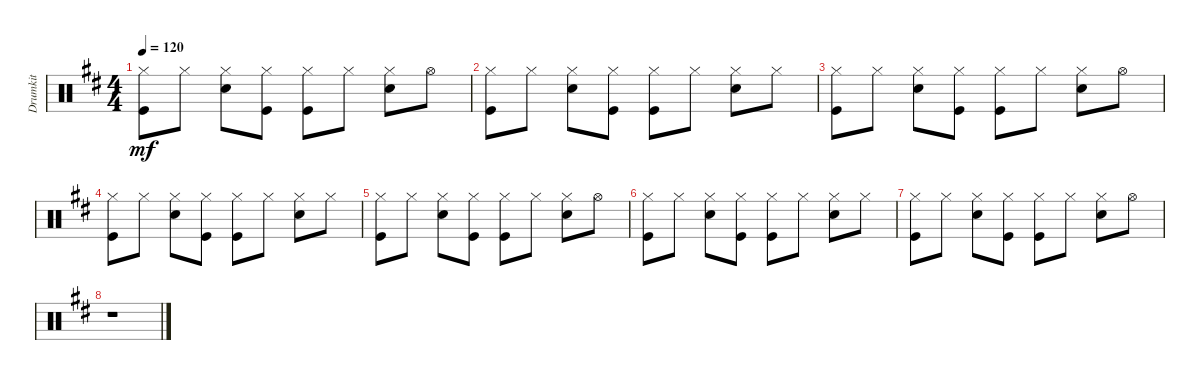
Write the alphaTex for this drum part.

\track ("Drumkit" "Drumkit") {instrument percussion}
\staff {score}
\articulation defaults
\ts (4 4)
\tempo 120
\clef neutral
\ks d
("Kick (hit)" "Hi-Hat (closed)").8{dy mf} "Hi-Hat (closed)".8 ("Hi-Hat (closed)" "Snare (hit) 2").8 ("Hi-Hat (closed)" "Kick (hit)").8 ("Hi-Hat (closed)" "Kick (hit)").8 "Hi-Hat (closed)".8 ("Hi-Hat (closed)" "Snare (hit) 2").8 "Hi-Hat (open)".8 |
("Kick (hit)" "Hi-Hat (closed)").8 "Hi-Hat (closed)".8 ("Hi-Hat (closed)" "Snare (hit) 2").8 ("Hi-Hat (closed)" "Kick (hit)").8 ("Hi-Hat (closed)" "Kick (hit)").8 "Hi-Hat (closed)".8 ("Hi-Hat (closed)" "Snare (hit) 2").8 "Hi-Hat (closed)".8 |
("Kick (hit)" "Hi-Hat (closed)").8 "Hi-Hat (closed)".8 ("Hi-Hat (closed)" "Snare (hit) 2").8 ("Hi-Hat (closed)" "Kick (hit)").8 ("Hi-Hat (closed)" "Kick (hit)").8 "Hi-Hat (closed)".8 ("Hi-Hat (closed)" "Snare (hit) 2").8 "Hi-Hat (open)".8 |
("Kick (hit)" "Hi-Hat (closed)").8 "Hi-Hat (closed)".8 ("Hi-Hat (closed)" "Snare (hit) 2").8 ("Hi-Hat (closed)" "Kick (hit)").8 ("Hi-Hat (closed)" "Kick (hit)").8 "Hi-Hat (closed)".8 ("Hi-Hat (closed)" "Snare (hit) 2").8 "Hi-Hat (closed)".8 |
("Kick (hit)" "Hi-Hat (closed)").8 "Hi-Hat (closed)".8 ("Hi-Hat (closed)" "Snare (hit) 2").8 ("Hi-Hat (closed)" "Kick (hit)").8 ("Hi-Hat (closed)" "Kick (hit)").8 "Hi-Hat (closed)".8 ("Hi-Hat (closed)" "Snare (hit) 2").8 "Hi-Hat (open)".8 |
("Kick (hit)" "Hi-Hat (closed)").8 "Hi-Hat (closed)".8 ("Hi-Hat (closed)" "Snare (hit) 2").8 ("Hi-Hat (closed)" "Kick (hit)").8 ("Hi-Hat (closed)" "Kick (hit)").8 "Hi-Hat (closed)".8 ("Hi-Hat (closed)" "Snare (hit) 2").8 "Hi-Hat (closed)".8 |
("Kick (hit)" "Hi-Hat (closed)").8 "Hi-Hat (closed)".8 ("Hi-Hat (closed)" "Snare (hit) 2").8 ("Hi-Hat (closed)" "Kick (hit)").8 ("Hi-Hat (closed)" "Kick (hit)").8 "Hi-Hat (closed)".8 ("Hi-Hat (closed)" "Snare (hit) 2").8 "Hi-Hat (open)".8 |
r.1
